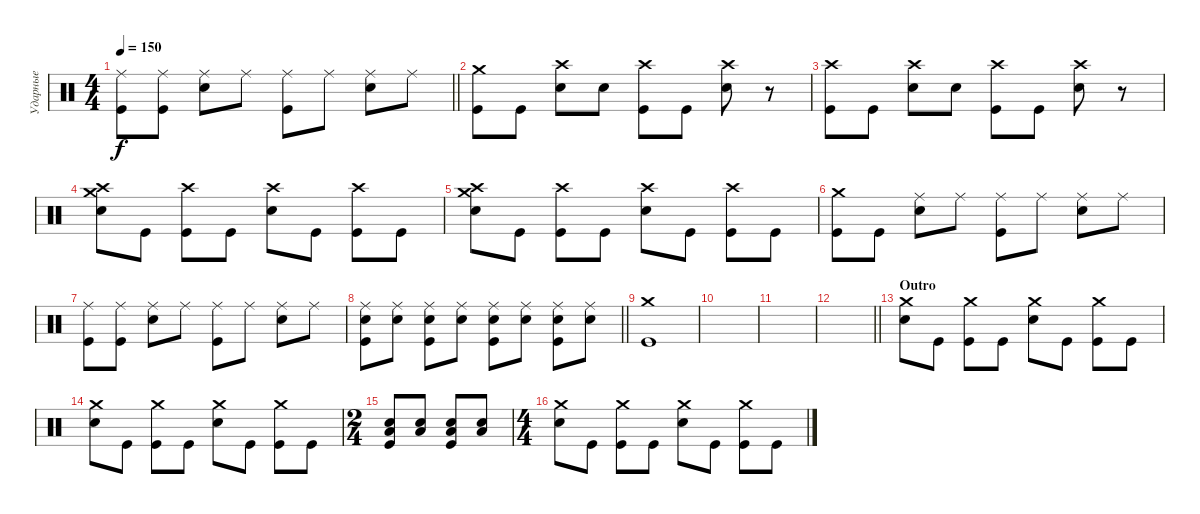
\track ("Ударные" "Ударные") {instrument percussion}
\staff {score}
\articulation defaults
\ts (4 4)
\tempo 150
\clef neutral
\barLineRight lightlight
\ks c
("Ride (middle)" "Kick (hit)").8{dy f} ("Ride (middle)" "Kick (hit)").8 ("Ride (middle)" "Electric Snare (hit)").8 "Ride (middle)".8 ("Ride (middle)" "Kick (hit)").8 "Ride (middle)".8 ("Ride (middle)" "Electric Snare (hit)").8 "Ride (middle)".8 |
\section ("" " ")
("Crash medium (hit)" "Kick (hit)").8 "Kick (hit)".8 ("Crash high (hit)" "Electric Snare (hit)").8 "Electric Snare (hit)".8 ("Crash high (hit)" "Kick (hit)").8 "Kick (hit)".8 ("Crash high (hit)" "Electric Snare (hit)").8 r.8 |
("Crash high (hit)" "Kick (hit)").8 "Kick (hit)".8 ("Crash high (hit)" "Electric Snare (hit)").8 "Electric Snare (hit)".8 ("Crash high (hit)" "Kick (hit)").8 "Kick (hit)".8 ("Crash high (hit)" "Electric Snare (hit)").8 r.8 |
("Crash medium (hit)" "Crash high (hit)" "Electric Snare (hit)").8 "Kick (hit)".8 ("Crash high (hit)" "Kick (hit)").8 "Kick (hit)".8 ("Crash high (hit)" "Electric Snare (hit)").8 "Kick (hit)".8 ("Crash high (hit)" "Kick (hit)").8 "Kick (hit)".8 |
("Crash medium (hit)" "Crash high (hit)" "Electric Snare (hit)").8 "Kick (hit)".8 ("Crash high (hit)" "Kick (hit)").8 "Kick (hit)".8 ("Crash high (hit)" "Electric Snare (hit)").8 "Kick (hit)".8 ("Crash high (hit)" "Kick (hit)").8 "Kick (hit)".8 |
("Crash medium (hit)" "Kick (hit)").8 "Kick (hit)".8 ("Ride (middle)" "Electric Snare (hit)").8 "Ride (middle)".8 ("Ride (middle)" "Kick (hit)").8 "Ride (middle)".8 ("Ride (middle)" "Electric Snare (hit)").8 "Ride (middle)".8 |
("Ride (middle)" "Kick (hit)").8 ("Ride (middle)" "Kick (hit)").8 ("Ride (middle)" "Electric Snare (hit)").8 "Ride (middle)".8 ("Ride (middle)" "Kick (hit)").8 "Ride (middle)".8 ("Ride (middle)" "Electric Snare (hit)").8 "Ride (middle)".8 |
\barLineRight lightlight
("Ride (middle)" "Electric Snare (hit)" "Kick (hit)").8 ("Ride (middle)" "Electric Snare (hit)").8 ("Ride (middle)" "Electric Snare (hit)" "Kick (hit)").8 ("Ride (middle)" "Electric Snare (hit)").8 ("Ride (middle)" "Electric Snare (hit)" "Kick (hit)").8 ("Ride (middle)" "Electric Snare (hit)").8 ("Ride (middle)" "Electric Snare (hit)" "Kick (hit)").8 ("Ride (middle)" "Electric Snare (hit)").8 |
\section ("" " ")
("Crash medium (hit)" "Kick (hit)").1 |
|
|
\barLineRight lightlight
|
\section ("" "Outro")
("Crash medium (hit)" "Electric Snare (hit)").8 "Kick (hit)".8 ("Crash medium (hit)" "Kick (hit)").8 "Kick (hit)".8 ("Crash medium (hit)" "Electric Snare (hit)").8 "Kick (hit)".8 ("Crash medium (hit)" "Kick (hit)").8 "Kick (hit)".8 |
("Crash medium (hit)" "Electric Snare (hit)").8 "Kick (hit)".8 ("Crash medium (hit)" "Kick (hit)").8 "Kick (hit)".8 ("Crash medium (hit)" "Electric Snare (hit)").8 "Kick (hit)".8 ("Crash medium (hit)" "Kick (hit)").8 "Kick (hit)".8 |
\ts (2 4)
("Low Tom (hit)" "Electric Snare (hit)" "Kick (hit)").8 ("Low Tom (hit)" "Electric Snare (hit)").8 ("Low Tom (hit)" "Electric Snare (hit)" "Kick (hit)").8 ("Low Tom (hit)" "Electric Snare (hit)").8 |
\ts (4 4)
("Crash medium (hit)" "Electric Snare (hit)").8 "Kick (hit)".8 ("Crash medium (hit)" "Kick (hit)").8 "Kick (hit)".8 ("Crash medium (hit)" "Electric Snare (hit)").8 "Kick (hit)".8 ("Crash medium (hit)" "Kick (hit)").8 "Kick (hit)".8
